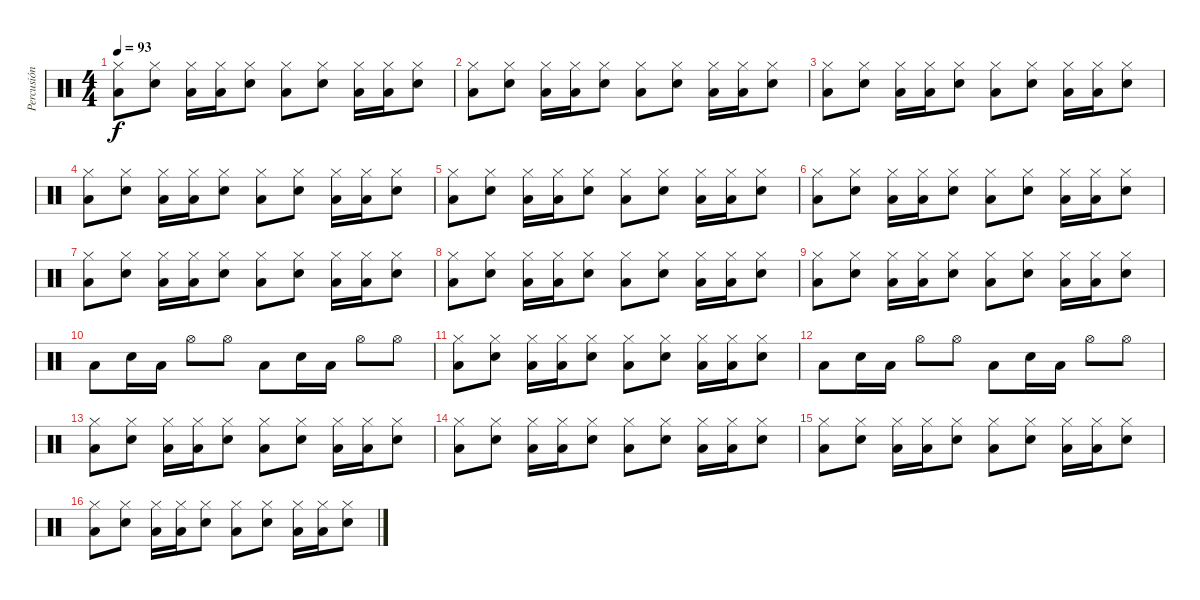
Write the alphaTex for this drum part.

\track ("Percusión (Miguel Tapia)" "Percusión ") {instrument percussion}
\staff {score}
\articulation defaults
\ts (4 4)
\tempo 93
\clef neutral
\ks c
("Hi-Hat (closed)" "Low Tom (hit)").8{dy f} ("Hi-Hat (closed)" "Electric Snare (hit)").8 ("Hi-Hat (closed)" "Low Tom (hit)").16 ("Hi-Hat (closed)" "Low Tom (hit)").16 ("Hi-Hat (closed)" "Electric Snare (hit)").8 ("Hi-Hat (closed)" "Low Tom (hit)").8 ("Hi-Hat (closed)" "Electric Snare (hit)").8 ("Hi-Hat (closed)" "Low Tom (hit)").16 ("Hi-Hat (closed)" "Low Tom (hit)").16 ("Hi-Hat (closed)" "Electric Snare (hit)").8 |
("Hi-Hat (closed)" "Low Tom (hit)").8 ("Hi-Hat (closed)" "Electric Snare (hit)").8 ("Hi-Hat (closed)" "Low Tom (hit)").16 ("Hi-Hat (closed)" "Low Tom (hit)").16 ("Hi-Hat (closed)" "Electric Snare (hit)").8 ("Hi-Hat (closed)" "Low Tom (hit)").8 ("Hi-Hat (closed)" "Electric Snare (hit)").8 ("Hi-Hat (closed)" "Low Tom (hit)").16 ("Hi-Hat (closed)" "Low Tom (hit)").16 ("Hi-Hat (closed)" "Electric Snare (hit)").8 |
("Hi-Hat (closed)" "Low Tom (hit)").8 ("Hi-Hat (closed)" "Electric Snare (hit)").8 ("Hi-Hat (closed)" "Low Tom (hit)").16 ("Hi-Hat (closed)" "Low Tom (hit)").16 ("Hi-Hat (closed)" "Electric Snare (hit)").8 ("Hi-Hat (closed)" "Low Tom (hit)").8 ("Hi-Hat (closed)" "Electric Snare (hit)").8 ("Hi-Hat (closed)" "Low Tom (hit)").16 ("Hi-Hat (closed)" "Low Tom (hit)").16 ("Hi-Hat (closed)" "Electric Snare (hit)").8 |
("Hi-Hat (closed)" "Low Tom (hit)").8 ("Hi-Hat (closed)" "Electric Snare (hit)").8 ("Hi-Hat (closed)" "Low Tom (hit)").16 ("Hi-Hat (closed)" "Low Tom (hit)").16 ("Hi-Hat (closed)" "Electric Snare (hit)").8 ("Hi-Hat (closed)" "Low Tom (hit)").8 ("Hi-Hat (closed)" "Electric Snare (hit)").8 ("Hi-Hat (closed)" "Low Tom (hit)").16 ("Hi-Hat (closed)" "Low Tom (hit)").16 ("Hi-Hat (closed)" "Electric Snare (hit)").8 |
("Hi-Hat (closed)" "Low Tom (hit)").8 ("Hi-Hat (closed)" "Electric Snare (hit)").8 ("Hi-Hat (closed)" "Low Tom (hit)").16 ("Hi-Hat (closed)" "Low Tom (hit)").16 ("Hi-Hat (closed)" "Electric Snare (hit)").8 ("Hi-Hat (closed)" "Low Tom (hit)").8 ("Hi-Hat (closed)" "Electric Snare (hit)").8 ("Hi-Hat (closed)" "Low Tom (hit)").16 ("Hi-Hat (closed)" "Low Tom (hit)").16 ("Hi-Hat (closed)" "Electric Snare (hit)").8 |
("Hi-Hat (closed)" "Low Tom (hit)").8 ("Hi-Hat (closed)" "Electric Snare (hit)").8 ("Hi-Hat (closed)" "Low Tom (hit)").16 ("Hi-Hat (closed)" "Low Tom (hit)").16 ("Hi-Hat (closed)" "Electric Snare (hit)").8 ("Hi-Hat (closed)" "Low Tom (hit)").8 ("Hi-Hat (closed)" "Electric Snare (hit)").8 ("Hi-Hat (closed)" "Low Tom (hit)").16 ("Hi-Hat (closed)" "Low Tom (hit)").16 ("Hi-Hat (closed)" "Electric Snare (hit)").8 |
("Hi-Hat (closed)" "Low Tom (hit)").8 ("Hi-Hat (closed)" "Electric Snare (hit)").8 ("Hi-Hat (closed)" "Low Tom (hit)").16 ("Hi-Hat (closed)" "Low Tom (hit)").16 ("Hi-Hat (closed)" "Electric Snare (hit)").8 ("Hi-Hat (closed)" "Low Tom (hit)").8 ("Hi-Hat (closed)" "Electric Snare (hit)").8 ("Hi-Hat (closed)" "Low Tom (hit)").16 ("Hi-Hat (closed)" "Low Tom (hit)").16 ("Hi-Hat (closed)" "Electric Snare (hit)").8 |
("Hi-Hat (closed)" "Low Tom (hit)").8 ("Hi-Hat (closed)" "Electric Snare (hit)").8 ("Hi-Hat (closed)" "Low Tom (hit)").16 ("Hi-Hat (closed)" "Low Tom (hit)").16 ("Hi-Hat (closed)" "Electric Snare (hit)").8 ("Hi-Hat (closed)" "Low Tom (hit)").8 ("Hi-Hat (closed)" "Electric Snare (hit)").8 ("Hi-Hat (closed)" "Low Tom (hit)").16 ("Hi-Hat (closed)" "Low Tom (hit)").16 ("Hi-Hat (closed)" "Electric Snare (hit)").8 |
("Hi-Hat (closed)" "Low Tom (hit)").8 ("Hi-Hat (closed)" "Electric Snare (hit)").8 ("Hi-Hat (closed)" "Low Tom (hit)").16 ("Hi-Hat (closed)" "Low Tom (hit)").16 ("Hi-Hat (closed)" "Electric Snare (hit)").8 ("Hi-Hat (closed)" "Low Tom (hit)").8 ("Hi-Hat (closed)" "Electric Snare (hit)").8 ("Hi-Hat (closed)" "Low Tom (hit)").16 ("Hi-Hat (closed)" "Low Tom (hit)").16 ("Hi-Hat (closed)" "Electric Snare (hit)").8 |
"Low Tom (hit)".8 "Electric Snare (hit)".16 "Low Tom (hit)".16 "Hi-Hat (open)".8 "Hi-Hat (open)".8 "Low Tom (hit)".8 "Electric Snare (hit)".16 "Low Tom (hit)".16 "Hi-Hat (open)".8 "Hi-Hat (open)".8 |
("Hi-Hat (closed)" "Low Tom (hit)").8 ("Hi-Hat (closed)" "Electric Snare (hit)").8 ("Hi-Hat (closed)" "Low Tom (hit)").16 ("Hi-Hat (closed)" "Low Tom (hit)").16 ("Hi-Hat (closed)" "Electric Snare (hit)").8 ("Hi-Hat (closed)" "Low Tom (hit)").8 ("Hi-Hat (closed)" "Electric Snare (hit)").8 ("Hi-Hat (closed)" "Low Tom (hit)").16 ("Hi-Hat (closed)" "Low Tom (hit)").16 ("Hi-Hat (closed)" "Electric Snare (hit)").8 |
"Low Tom (hit)".8 "Electric Snare (hit)".16 "Low Tom (hit)".16 "Hi-Hat (open)".8 "Hi-Hat (open)".8 "Low Tom (hit)".8 "Electric Snare (hit)".16 "Low Tom (hit)".16 "Hi-Hat (open)".8 "Hi-Hat (open)".8 |
("Hi-Hat (closed)" "Low Tom (hit)").8 ("Hi-Hat (closed)" "Electric Snare (hit)").8 ("Hi-Hat (closed)" "Low Tom (hit)").16 ("Hi-Hat (closed)" "Low Tom (hit)").16 ("Hi-Hat (closed)" "Electric Snare (hit)").8 ("Hi-Hat (closed)" "Low Tom (hit)").8 ("Hi-Hat (closed)" "Electric Snare (hit)").8 ("Hi-Hat (closed)" "Low Tom (hit)").16 ("Hi-Hat (closed)" "Low Tom (hit)").16 ("Hi-Hat (closed)" "Electric Snare (hit)").8 |
("Hi-Hat (closed)" "Low Tom (hit)").8 ("Hi-Hat (closed)" "Electric Snare (hit)").8 ("Hi-Hat (closed)" "Low Tom (hit)").16 ("Hi-Hat (closed)" "Low Tom (hit)").16 ("Hi-Hat (closed)" "Electric Snare (hit)").8 ("Hi-Hat (closed)" "Low Tom (hit)").8 ("Hi-Hat (closed)" "Electric Snare (hit)").8 ("Hi-Hat (closed)" "Low Tom (hit)").16 ("Hi-Hat (closed)" "Low Tom (hit)").16 ("Hi-Hat (closed)" "Electric Snare (hit)").8 |
("Hi-Hat (closed)" "Low Tom (hit)").8 ("Hi-Hat (closed)" "Electric Snare (hit)").8 ("Hi-Hat (closed)" "Low Tom (hit)").16 ("Hi-Hat (closed)" "Low Tom (hit)").16 ("Hi-Hat (closed)" "Electric Snare (hit)").8 ("Hi-Hat (closed)" "Low Tom (hit)").8 ("Hi-Hat (closed)" "Electric Snare (hit)").8 ("Hi-Hat (closed)" "Low Tom (hit)").16 ("Hi-Hat (closed)" "Low Tom (hit)").16 ("Hi-Hat (closed)" "Electric Snare (hit)").8 |
("Hi-Hat (closed)" "Low Tom (hit)").8 ("Hi-Hat (closed)" "Electric Snare (hit)").8 ("Hi-Hat (closed)" "Low Tom (hit)").16 ("Hi-Hat (closed)" "Low Tom (hit)").16 ("Hi-Hat (closed)" "Electric Snare (hit)").8 ("Hi-Hat (closed)" "Low Tom (hit)").8 ("Hi-Hat (closed)" "Electric Snare (hit)").8 ("Hi-Hat (closed)" "Low Tom (hit)").16 ("Hi-Hat (closed)" "Low Tom (hit)").16 ("Hi-Hat (closed)" "Electric Snare (hit)").8
